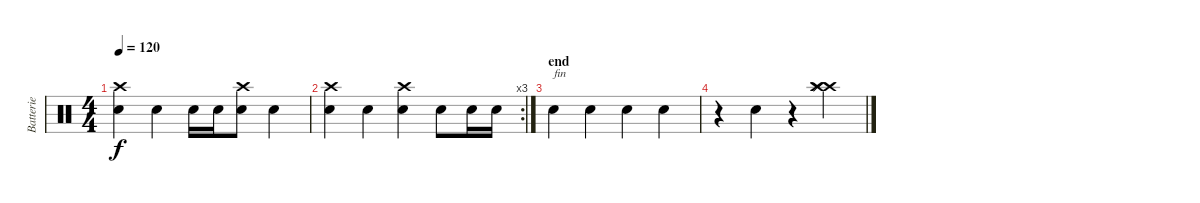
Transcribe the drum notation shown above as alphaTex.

\track ("Batterie" "Batterie") {instrument percussion}
\staff {score}
\articulation defaults
\ts (4 4)
\tempo 120
\clef neutral
\ks c
("Crash high (hit)" "Electric Snare (hit)").4{dy f} "Electric Snare (hit)".4 "Electric Snare (hit)".16 "Electric Snare (hit)".16 ("Crash high (hit)" "Electric Snare (hit)").8 "Electric Snare (hit)".4 |
\rc 3
("Crash high (hit)" "Electric Snare (hit)").4 "Electric Snare (hit)".4 ("Crash high (hit)" "Electric Snare (hit)").4 "Electric Snare (hit)".8 "Electric Snare (hit)".16 "Electric Snare (hit)".16 |
\section ("" "end")
"Electric Snare (hit)".4{txt "fin"} "Electric Snare (hit)".4 "Electric Snare (hit)".4 "Electric Snare (hit)".4 |
r.4 "Electric Snare (hit)".4 r.4 ("Crash high (hit)" "Splash (hit)" "Splash (hit)" "Crash high (hit)").4
